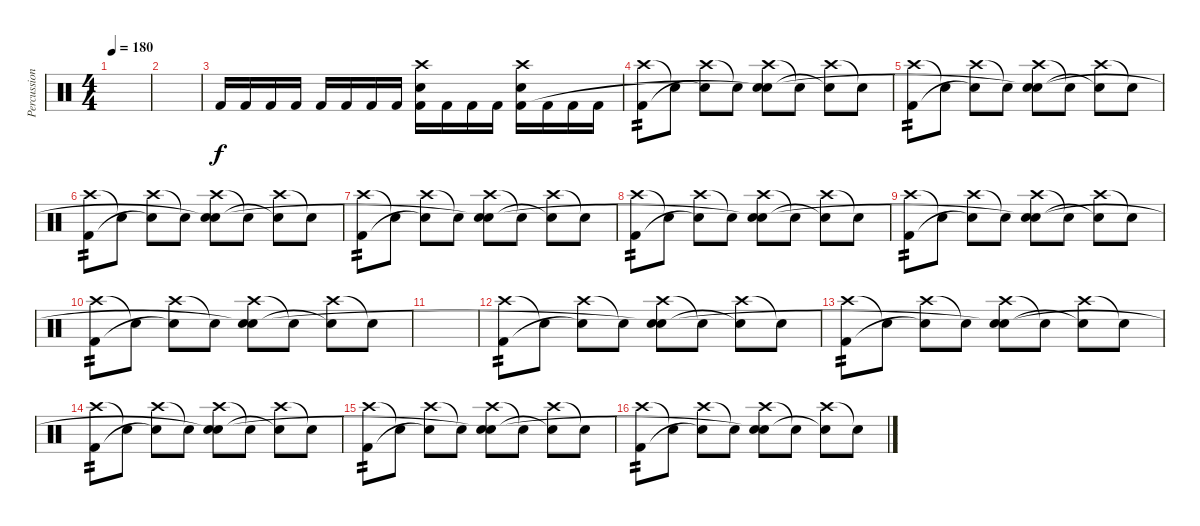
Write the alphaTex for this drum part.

\track ("Percussion" "Percussion") {instrument percussion}
\staff {score}
\articulation defaults
\ts (4 4)
\tempo 180
\clef neutral
\ks c
|
|
"Kick (hit) 2".16 "Kick (hit) 2".16 "Kick (hit) 2".16 "Kick (hit) 2".16 "Kick (hit) 2".16 "Kick (hit) 2".16 "Kick (hit) 2".16 "Kick (hit) 2".16 ("Electric Snare (hit)" "Crash high (hit)" "Kick (hit) 2").16 "Kick (hit) 2".16 "Kick (hit) 2".16 "Kick (hit) 2".16 ("Electric Snare (hit)" "Crash high (hit)" "Kick (hit) 2").16 "Kick (hit) 2".16 "Kick (hit) 2".16 "Kick (hit) 2".16 |
("Crash high (hit)" "Kick (hit) 2").8{tp 2} "Snare (hit)"{t}.8 ("Crash high (hit)" "Snare (hit)"{t}).8 "Snare (hit)"{t}.8 ("Crash high (hit)" "Electric Snare (hit)" "Snare (hit)"{t}).8 "Snare (hit)"{t}.8 ("Crash high (hit)" "Snare (hit)"{t}).8 "Snare (hit)"{t}.8 |
("Crash high (hit)" "Kick (hit) 2").8{tp 2} "Snare (hit)"{t}.8 ("Crash high (hit)" "Snare (hit)"{t}).8 "Snare (hit)"{t}.8 ("Crash high (hit)" "Electric Snare (hit)" "Snare (hit)"{t}).8 "Snare (hit)"{t}.8 ("Crash high (hit)" "Snare (hit)"{t}).8 "Snare (hit)"{t}.8 |
("Crash high (hit)" "Kick (hit) 2").8{tp 2} "Snare (hit)"{t}.8 ("Crash high (hit)" "Snare (hit)"{t}).8 "Snare (hit)"{t}.8 ("Crash high (hit)" "Electric Snare (hit)" "Snare (hit)"{t}).8 "Snare (hit)"{t}.8 ("Crash high (hit)" "Snare (hit)"{t}).8 "Snare (hit)"{t}.8 |
("Crash high (hit)" "Kick (hit) 2").8{tp 2} "Snare (hit)"{t}.8 ("Crash high (hit)" "Snare (hit)"{t}).8 "Snare (hit)"{t}.8 ("Crash high (hit)" "Electric Snare (hit)" "Snare (hit)"{t}).8 "Snare (hit)"{t}.8 ("Crash high (hit)" "Snare (hit)"{t}).8 "Snare (hit)"{t}.8 |
("Crash high (hit)" "Kick (hit) 2").8{tp 2} "Snare (hit)"{t}.8 ("Crash high (hit)" "Snare (hit)"{t}).8 "Snare (hit)"{t}.8 ("Crash high (hit)" "Electric Snare (hit)" "Snare (hit)"{t}).8 "Snare (hit)"{t}.8 ("Crash high (hit)" "Snare (hit)"{t}).8 "Snare (hit)"{t}.8 |
("Crash high (hit)" "Kick (hit) 2").8{tp 2} "Snare (hit)"{t}.8 ("Crash high (hit)" "Snare (hit)"{t}).8 "Snare (hit)"{t}.8 ("Crash high (hit)" "Electric Snare (hit)" "Snare (hit)"{t}).8 "Snare (hit)"{t}.8 ("Crash high (hit)" "Snare (hit)"{t}).8 "Snare (hit)"{t}.8 |
("Crash high (hit)" "Kick (hit) 2").8{tp 2} "Snare (hit)"{t}.8 ("Crash high (hit)" "Snare (hit)"{t}).8 "Snare (hit)"{t}.8 ("Crash high (hit)" "Electric Snare (hit)" "Snare (hit)"{t}).8 "Snare (hit)"{t}.8 ("Crash high (hit)" "Snare (hit)"{t}).8 "Snare (hit)"{t}.8 |
|
("Crash high (hit)" "Kick (hit) 2").8{tp 2} "Snare (hit)"{t}.8 ("Crash high (hit)" "Snare (hit)"{t}).8 "Snare (hit)"{t}.8 ("Crash high (hit)" "Electric Snare (hit)" "Snare (hit)"{t}).8 "Snare (hit)"{t}.8 ("Crash high (hit)" "Snare (hit)"{t}).8 "Snare (hit)"{t}.8 |
("Crash high (hit)" "Kick (hit) 2").8{tp 2} "Snare (hit)"{t}.8 ("Crash high (hit)" "Snare (hit)"{t}).8 "Snare (hit)"{t}.8 ("Crash high (hit)" "Electric Snare (hit)" "Snare (hit)"{t}).8 "Snare (hit)"{t}.8 ("Crash high (hit)" "Snare (hit)"{t}).8 "Snare (hit)"{t}.8 |
("Crash high (hit)" "Kick (hit) 2").8{tp 2} "Snare (hit)"{t}.8 ("Crash high (hit)" "Snare (hit)"{t}).8 "Snare (hit)"{t}.8 ("Crash high (hit)" "Electric Snare (hit)" "Snare (hit)"{t}).8 "Snare (hit)"{t}.8 ("Crash high (hit)" "Snare (hit)"{t}).8 "Snare (hit)"{t}.8 |
("Crash high (hit)" "Kick (hit) 2").8{tp 2} "Snare (hit)"{t}.8 ("Crash high (hit)" "Snare (hit)"{t}).8 "Snare (hit)"{t}.8 ("Crash high (hit)" "Electric Snare (hit)" "Snare (hit)"{t}).8 "Snare (hit)"{t}.8 ("Crash high (hit)" "Snare (hit)"{t}).8 "Snare (hit)"{t}.8 |
("Crash high (hit)" "Kick (hit) 2").8{tp 2} "Snare (hit)"{t}.8 ("Crash high (hit)" "Snare (hit)"{t}).8 "Snare (hit)"{t}.8 ("Crash high (hit)" "Electric Snare (hit)" "Snare (hit)"{t}).8 "Snare (hit)"{t}.8 ("Crash high (hit)" "Snare (hit)"{t}).8 "Snare (hit)"{t}.8
